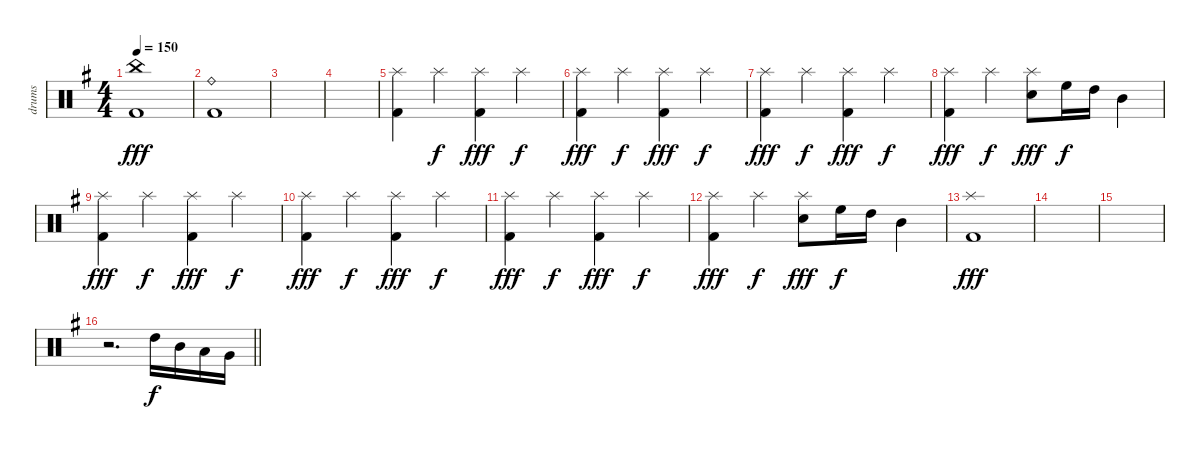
\track ("drums" "drums") {instrument percussion}
\staff {score}
\articulation defaults
\ts (4 4)
\tempo 150
\clef neutral
\ks eminor
("China (hit)" "Kick (hit) 2").1{dy fff} |
("Ride (bell)" "Kick (hit) 2").1 |
|
|
("Splash (hit)" "Kick (hit) 2").4 "Splash (hit)".4{dy f} ("Splash (hit)" "Kick (hit) 2").4{dy fff} "Splash (hit)".4{dy f} |
("Splash (hit)" "Kick (hit) 2").4{dy fff} "Splash (hit)".4{dy f} ("Splash (hit)" "Kick (hit) 2").4{dy fff} "Splash (hit)".4{dy f} |
("Splash (hit)" "Kick (hit) 2").4{dy fff} "Splash (hit)".4{dy f} ("Splash (hit)" "Kick (hit) 2").4{dy fff} "Splash (hit)".4{dy f} |
("Splash (hit)" "Kick (hit) 2").4{dy fff} "Splash (hit)".4{dy f} ("Splash (hit)" "Electric Snare (hit)").8{dy fff} "High Floor Tom (hit)".16{dy f} "High Tom (hit)".16 "Mid Tom (hit)".4 |
("Splash (hit)" "Kick (hit) 2").4{dy fff} "Splash (hit)".4{dy f} ("Splash (hit)" "Kick (hit) 2").4{dy fff} "Splash (hit)".4{dy f} |
("Splash (hit)" "Kick (hit) 2").4{dy fff} "Splash (hit)".4{dy f} ("Splash (hit)" "Kick (hit) 2").4{dy fff} "Splash (hit)".4{dy f} |
("Splash (hit)" "Kick (hit) 2").4{dy fff} "Splash (hit)".4{dy f} ("Splash (hit)" "Kick (hit) 2").4{dy fff} "Splash (hit)".4{dy f} |
("Splash (hit)" "Kick (hit) 2").4{dy fff} "Splash (hit)".4{dy f} ("Splash (hit)" "Electric Snare (hit)").8{dy fff} "High Floor Tom (hit)".16{dy f} "High Tom (hit)".16 "Mid Tom (hit)".4 |
("Splash (hit)" "Kick (hit) 2").1{dy fff} |
|
|
\barLineRight lightlight
r.2{d} "High Tom (hit)".16{dy f} "Mid Tom (hit)".16 "Low Tom (hit)".16 "Very Low Tom (hit)".16
